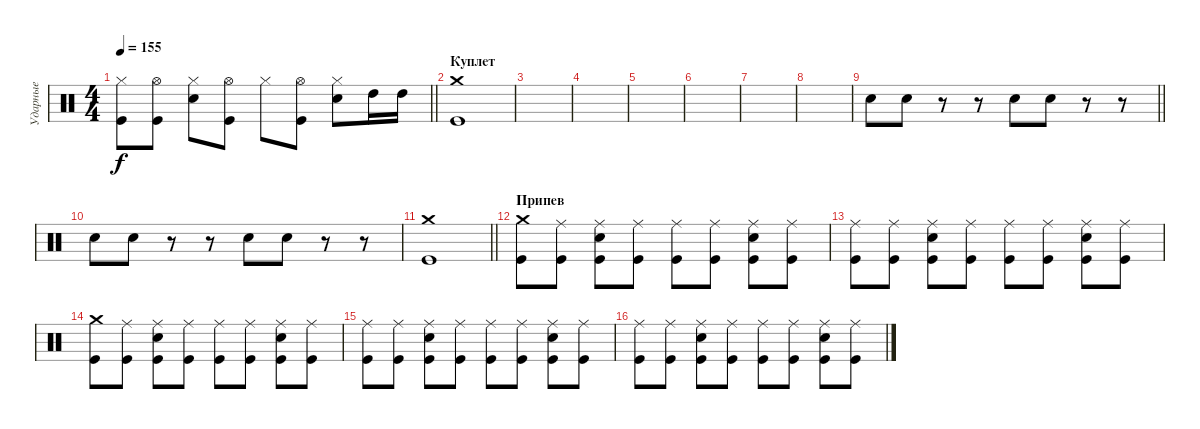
\track ("Ударные" "Ударные") {instrument percussion}
\staff {score}
\articulation defaults
\ts (4 4)
\tempo 155
\clef neutral
\barLineRight lightlight
\ks c
("Hi-Hat (closed)" "Kick (hit)").8{dy f} ("Hi-Hat (open)" "Kick (hit)").8 ("Hi-Hat (closed)" "Electric Snare (hit)").8 ("Hi-Hat (open)" "Kick (hit)").8 "Hi-Hat (closed)".8 ("Hi-Hat (open)" "Kick (hit)").8 ("Hi-Hat (closed)" "Electric Snare (hit)").8 "High Tom (hit)".16 "High Tom (hit)".16 |
\section ("" "Куплет")
("Crash medium (hit)" "Kick (hit)").1 |
|
|
|
|
|
|
\barLineRight lightlight "Electric Snare (hit)".8 "Electric Snare (hit)".8
r.8 r.8 "Electric Snare (hit)".8 "Electric Snare (hit)".8 r.8 r.8 |
"Electric Snare (hit)".8 "Electric Snare (hit)".8 r.8 r.8 "Electric Snare (hit)".8 "Electric Snare (hit)".8 r.8 r.8 |
\barLineRight lightlight
("Crash medium (hit)" "Kick (hit)").1 |
\section ("" "Припев")
("Crash medium (hit)" "Kick (hit)").8 ("Ride (middle)" "Kick (hit)").8 ("Ride (middle)" "Electric Snare (hit)" "Kick (hit)").8 ("Ride (middle)" "Kick (hit)").8 ("Ride (middle)" "Kick (hit)").8 ("Ride (middle)" "Kick (hit)").8 ("Ride (middle)" "Electric Snare (hit)" "Kick (hit)").8 ("Ride (middle)" "Kick (hit)").8 |
("Ride (middle)" "Kick (hit)").8 ("Ride (middle)" "Kick (hit)").8 ("Ride (middle)" "Electric Snare (hit)" "Kick (hit)").8 ("Ride (middle)" "Kick (hit)").8 ("Ride (middle)" "Kick (hit)").8 ("Ride (middle)" "Kick (hit)").8 ("Ride (middle)" "Electric Snare (hit)" "Kick (hit)").8 ("Ride (middle)" "Kick (hit)").8 |
("Crash medium (hit)" "Kick (hit)").8 ("Ride (middle)" "Kick (hit)").8 ("Ride (middle)" "Electric Snare (hit)" "Kick (hit)").8 ("Ride (middle)" "Kick (hit)").8 ("Ride (middle)" "Kick (hit)").8 ("Ride (middle)" "Kick (hit)").8 ("Ride (middle)" "Electric Snare (hit)" "Kick (hit)").8 ("Ride (middle)" "Kick (hit)").8 |
("Ride (middle)" "Kick (hit)").8 ("Ride (middle)" "Kick (hit)").8 ("Ride (middle)" "Electric Snare (hit)" "Kick (hit)").8 ("Ride (middle)" "Kick (hit)").8 ("Ride (middle)" "Kick (hit)").8 ("Ride (middle)" "Kick (hit)").8 ("Ride (middle)" "Electric Snare (hit)" "Kick (hit)").8 ("Ride (middle)" "Kick (hit)").8 |
("Ride (middle)" "Kick (hit)").8 ("Ride (middle)" "Kick (hit)").8 ("Ride (middle)" "Electric Snare (hit)" "Kick (hit)").8 ("Ride (middle)" "Kick (hit)").8 ("Ride (middle)" "Kick (hit)").8 ("Ride (middle)" "Kick (hit)").8 ("Ride (middle)" "Electric Snare (hit)" "Kick (hit)").8 ("Ride (middle)" "Kick (hit)").8
